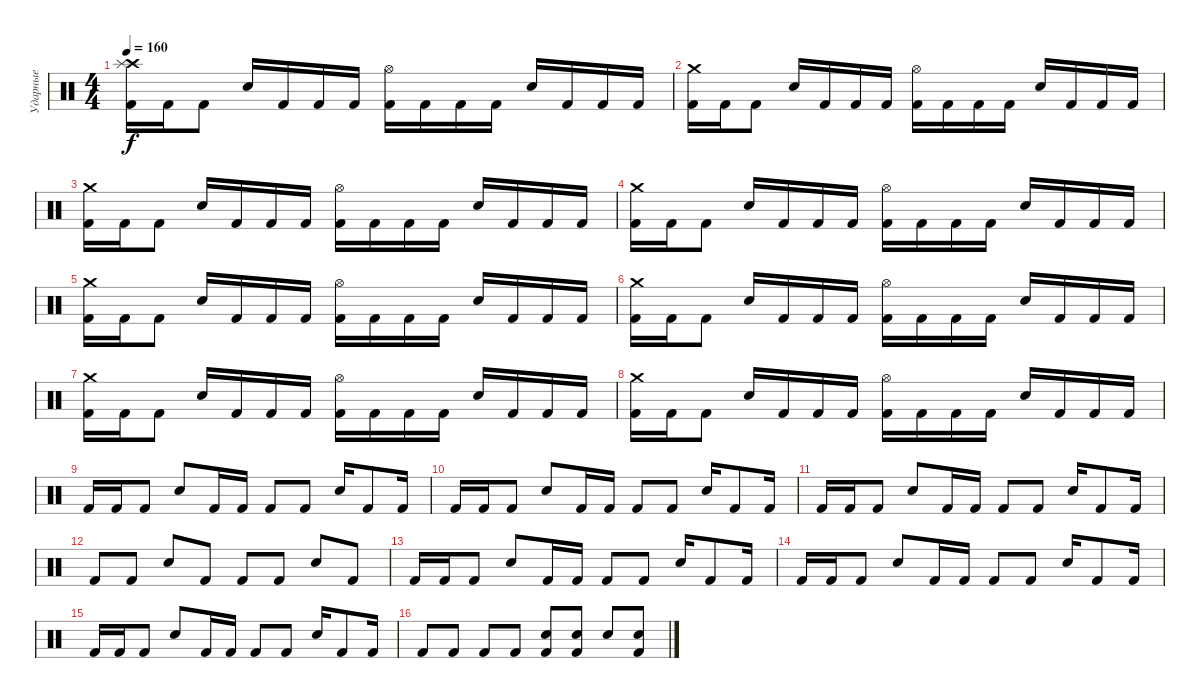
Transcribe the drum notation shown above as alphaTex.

\track ("Ударные" "Ударные") {instrument percussion}
\staff {score}
\articulation defaults
\ts (4 4)
\tempo 160
\clef neutral
\ks c
("Crash high (hit)" "Splash (hit)" "Kick (hit) 2").16{dy f} "Kick (hit) 2".16 "Kick (hit) 2".8 "Electric Snare (hit)".16 "Kick (hit) 2".16 "Kick (hit) 2".16 "Kick (hit) 2".16 ("Hi-Hat (open)" "Kick (hit) 2").16 "Kick (hit) 2".16 "Kick (hit) 2".16 "Kick (hit) 2".16 "Electric Snare (hit)".16 "Kick (hit) 2".16 "Kick (hit) 2".16 "Kick (hit) 2".16 |
("Crash medium (hit)" "Kick (hit) 2").16 "Kick (hit) 2".16 "Kick (hit) 2".8 "Electric Snare (hit)".16 "Kick (hit) 2".16 "Kick (hit) 2".16 "Kick (hit) 2".16 ("Hi-Hat (open)" "Kick (hit) 2").16 "Kick (hit) 2".16 "Kick (hit) 2".16 "Kick (hit) 2".16 "Electric Snare (hit)".16 "Kick (hit) 2".16 "Kick (hit) 2".16 "Kick (hit) 2".16 |
("Crash medium (hit)" "Kick (hit) 2").16 "Kick (hit) 2".16 "Kick (hit) 2".8 "Electric Snare (hit)".16 "Kick (hit) 2".16 "Kick (hit) 2".16 "Kick (hit) 2".16 ("Hi-Hat (open)" "Kick (hit) 2").16 "Kick (hit) 2".16 "Kick (hit) 2".16 "Kick (hit) 2".16 "Electric Snare (hit)".16 "Kick (hit) 2".16 "Kick (hit) 2".16 "Kick (hit) 2".16 |
("Crash medium (hit)" "Kick (hit) 2").16 "Kick (hit) 2".16 "Kick (hit) 2".8 "Electric Snare (hit)".16 "Kick (hit) 2".16 "Kick (hit) 2".16 "Kick (hit) 2".16 ("Hi-Hat (open)" "Kick (hit) 2").16 "Kick (hit) 2".16 "Kick (hit) 2".16 "Kick (hit) 2".16 "Electric Snare (hit)".16 "Kick (hit) 2".16 "Kick (hit) 2".16 "Kick (hit) 2".16 |
("Crash medium (hit)" "Kick (hit) 2").16 "Kick (hit) 2".16 "Kick (hit) 2".8 "Electric Snare (hit)".16 "Kick (hit) 2".16 "Kick (hit) 2".16 "Kick (hit) 2".16 ("Hi-Hat (open)" "Kick (hit) 2").16 "Kick (hit) 2".16 "Kick (hit) 2".16 "Kick (hit) 2".16 "Electric Snare (hit)".16 "Kick (hit) 2".16 "Kick (hit) 2".16 "Kick (hit) 2".16 |
("Crash medium (hit)" "Kick (hit) 2").16 "Kick (hit) 2".16 "Kick (hit) 2".8 "Electric Snare (hit)".16 "Kick (hit) 2".16 "Kick (hit) 2".16 "Kick (hit) 2".16 ("Hi-Hat (open)" "Kick (hit) 2").16 "Kick (hit) 2".16 "Kick (hit) 2".16 "Kick (hit) 2".16 "Electric Snare (hit)".16 "Kick (hit) 2".16 "Kick (hit) 2".16 "Kick (hit) 2".16 |
("Crash medium (hit)" "Kick (hit) 2").16 "Kick (hit) 2".16 "Kick (hit) 2".8 "Electric Snare (hit)".16 "Kick (hit) 2".16 "Kick (hit) 2".16 "Kick (hit) 2".16 ("Hi-Hat (open)" "Kick (hit) 2").16 "Kick (hit) 2".16 "Kick (hit) 2".16 "Kick (hit) 2".16 "Electric Snare (hit)".16 "Kick (hit) 2".16 "Kick (hit) 2".16 "Kick (hit) 2".16 |
("Crash medium (hit)" "Kick (hit) 2").16 "Kick (hit) 2".16 "Kick (hit) 2".8 "Electric Snare (hit)".16 "Kick (hit) 2".16 "Kick (hit) 2".16 "Kick (hit) 2".16 ("Hi-Hat (open)" "Kick (hit) 2").16 "Kick (hit) 2".16 "Kick (hit) 2".16 "Kick (hit) 2".16 "Electric Snare (hit)".16 "Kick (hit) 2".16 "Kick (hit) 2".16 "Kick (hit) 2".16 |
"Kick (hit) 2".16 "Kick (hit) 2".16 "Kick (hit) 2".8 "Electric Snare (hit)".8 "Kick (hit) 2".16 "Kick (hit) 2".16 "Kick (hit) 2".8 "Kick (hit) 2".8 "Electric Snare (hit)".16 "Kick (hit) 2".8 "Kick (hit) 2".16 |
"Kick (hit) 2".16 "Kick (hit) 2".16 "Kick (hit) 2".8 "Electric Snare (hit)".8 "Kick (hit) 2".16 "Kick (hit) 2".16 "Kick (hit) 2".8 "Kick (hit) 2".8 "Electric Snare (hit)".16 "Kick (hit) 2".8 "Kick (hit) 2".16 |
"Kick (hit) 2".16 "Kick (hit) 2".16 "Kick (hit) 2".8 "Electric Snare (hit)".8 "Kick (hit) 2".16 "Kick (hit) 2".16 "Kick (hit) 2".8 "Kick (hit) 2".8 "Electric Snare (hit)".16 "Kick (hit) 2".8 "Kick (hit) 2".16 |
"Kick (hit) 2".8 "Kick (hit) 2".8 "Electric Snare (hit)".8 "Kick (hit) 2".8 "Kick (hit) 2".8 "Kick (hit) 2".8 "Electric Snare (hit)".8 "Kick (hit) 2".8 |
"Kick (hit) 2".16 "Kick (hit) 2".16 "Kick (hit) 2".8 "Electric Snare (hit)".8 "Kick (hit) 2".16 "Kick (hit) 2".16 "Kick (hit) 2".8 "Kick (hit) 2".8 "Electric Snare (hit)".16 "Kick (hit) 2".8 "Kick (hit) 2".16 |
"Kick (hit) 2".16 "Kick (hit) 2".16 "Kick (hit) 2".8 "Electric Snare (hit)".8 "Kick (hit) 2".16 "Kick (hit) 2".16 "Kick (hit) 2".8 "Kick (hit) 2".8 "Electric Snare (hit)".16 "Kick (hit) 2".8 "Kick (hit) 2".16 |
"Kick (hit) 2".16 "Kick (hit) 2".16 "Kick (hit) 2".8 "Electric Snare (hit)".8 "Kick (hit) 2".16 "Kick (hit) 2".16 "Kick (hit) 2".8 "Kick (hit) 2".8 "Electric Snare (hit)".16 "Kick (hit) 2".8 "Kick (hit) 2".16 |
"Kick (hit) 2".8 "Kick (hit) 2".8 "Kick (hit) 2".8 "Kick (hit) 2".8 ("Electric Snare (hit)" "Kick (hit) 2").8 ("Electric Snare (hit)" "Kick (hit) 2").8 "Electric Snare (hit)".8 ("Electric Snare (hit)" "Kick (hit) 2").8
